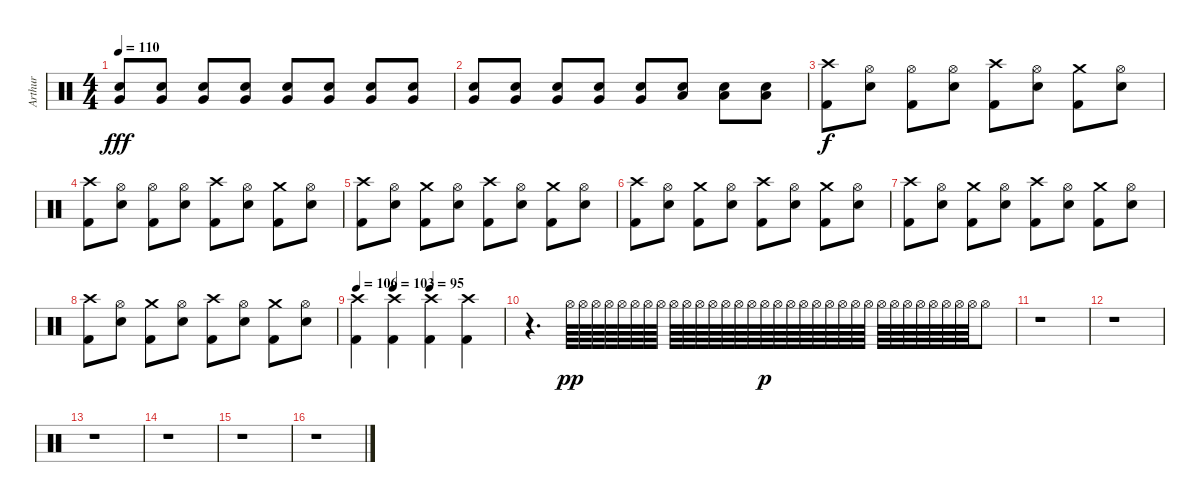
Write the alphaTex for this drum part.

\track ("Arthur" "Arthur") {instrument percussion}
\staff {score}
\articulation defaults
\ts (4 4)
\tempo 110
\clef neutral
\ks c
("Electric Snare (hit)" "Very Low Tom (hit)").8{dy fff} ("Electric Snare (hit)" "Very Low Tom (hit)").8 ("Electric Snare (hit)" "Very Low Tom (hit)").8 ("Electric Snare (hit)" "Very Low Tom (hit)").8 ("Electric Snare (hit)" "Very Low Tom (hit)").8 ("Electric Snare (hit)" "Very Low Tom (hit)").8 ("Electric Snare (hit)" "Very Low Tom (hit)").8 ("Electric Snare (hit)" "Very Low Tom (hit)").8 |
("Electric Snare (hit)" "Very Low Tom (hit)").8 ("Electric Snare (hit)" "Very Low Tom (hit)").8 ("Electric Snare (hit)" "Very Low Tom (hit)").8 ("Electric Snare (hit)" "Very Low Tom (hit)").8 ("Electric Snare (hit)" "Very Low Tom (hit)").8 ("Electric Snare (hit)" "Low Tom (hit)").8 ("Electric Snare (hit)" "Low Tom (hit)").8 ("Electric Snare (hit)" "Low Tom (hit)").8 |
("Crash high (hit)" "Kick (hit) 2").8{dy f} ("Hi-Hat (open)" "Electric Snare (hit)").8 ("Hi-Hat (open)" "Kick (hit) 2").8 ("Hi-Hat (open)" "Electric Snare (hit)").8 ("Crash high (hit)" "Kick (hit) 2").8 ("Hi-Hat (open)" "Electric Snare (hit)").8 ("Crash medium (hit)" "Kick (hit) 2").8 ("Hi-Hat (open)" "Electric Snare (hit)").8 |
("Crash high (hit)" "Kick (hit) 2").8 ("Hi-Hat (open)" "Electric Snare (hit)").8 ("Hi-Hat (open)" "Kick (hit) 2").8 ("Hi-Hat (open)" "Electric Snare (hit)").8 ("Crash high (hit)" "Kick (hit) 2").8 ("Hi-Hat (open)" "Electric Snare (hit)").8 ("Crash medium (hit)" "Kick (hit) 2").8 ("Hi-Hat (open)" "Electric Snare (hit)").8 |
("Crash high (hit)" "Kick (hit) 2").8 ("Hi-Hat (open)" "Electric Snare (hit)").8 ("Crash medium (hit)" "Kick (hit) 2").8 ("Hi-Hat (open)" "Electric Snare (hit)").8 ("Crash high (hit)" "Kick (hit) 2").8 ("Hi-Hat (open)" "Electric Snare (hit)").8 ("Crash medium (hit)" "Kick (hit) 2").8 ("Hi-Hat (open)" "Electric Snare (hit)").8 |
("Crash high (hit)" "Kick (hit) 2").8 ("Hi-Hat (open)" "Electric Snare (hit)").8 ("Crash medium (hit)" "Kick (hit) 2").8 ("Hi-Hat (open)" "Electric Snare (hit)").8 ("Crash high (hit)" "Kick (hit) 2").8 ("Hi-Hat (open)" "Electric Snare (hit)").8 ("Crash medium (hit)" "Kick (hit) 2").8 ("Hi-Hat (open)" "Electric Snare (hit)").8 |
("Crash high (hit)" "Kick (hit) 2").8 ("Hi-Hat (open)" "Electric Snare (hit)").8 ("Crash medium (hit)" "Kick (hit) 2").8 ("Hi-Hat (open)" "Electric Snare (hit)").8 ("Crash high (hit)" "Kick (hit) 2").8 ("Hi-Hat (open)" "Electric Snare (hit)").8 ("Crash medium (hit)" "Kick (hit) 2").8 ("Hi-Hat (open)" "Electric Snare (hit)").8 |
("Crash high (hit)" "Kick (hit) 2").8 ("Hi-Hat (open)" "Electric Snare (hit)").8 ("Crash medium (hit)" "Kick (hit) 2").8 ("Hi-Hat (open)" "Electric Snare (hit)").8 ("Crash high (hit)" "Kick (hit) 2").8 ("Hi-Hat (open)" "Electric Snare (hit)").8 ("Crash medium (hit)" "Kick (hit) 2").8 ("Hi-Hat (open)" "Electric Snare (hit)").8 |
\tempo 106
\tempo (103 0.25)
\tempo (98 0.5)
\tempo (95 0.5)
("Crash high (hit)" "Kick (hit) 2").4 ("Crash high (hit)" "Kick (hit) 2").4 ("Crash high (hit)" "Kick (hit) 2").4 ("Crash high (hit)" "Kick (hit) 2").4 |
r.4{d} "Hi-Hat (open)".64{dy pp} "Hi-Hat (open)".64 "Hi-Hat (open)".64 "Hi-Hat (open)".64 "Hi-Hat (open)".64 "Hi-Hat (open)".64 "Hi-Hat (open)".64 "Hi-Hat (open)".64 "Hi-Hat (open)".64 "Hi-Hat (open)".64 "Hi-Hat (open)".64 "Hi-Hat (open)".64 "Hi-Hat (open)".64 "Hi-Hat (open)".64 "Hi-Hat (open)".64 "Hi-Hat (open)".64{dy p} "Hi-Hat (open)".64 "Hi-Hat (open)".64 "Hi-Hat (open)".64 "Hi-Hat (open)".64 "Hi-Hat (open)".64 "Hi-Hat (open)".64 "Hi-Hat (open)".64 "Hi-Hat (open)".64 "Hi-Hat (open)".64 "Hi-Hat (open)".64 "Hi-Hat (open)".64 "Hi-Hat (open)".64 "Hi-Hat (open)".64 "Hi-Hat (open)".64 "Hi-Hat (open)".64 "Hi-Hat (open)".64 "Hi-Hat (open)".8 |
r.1 |
r.1 |
r.1 |
r.1 |
r.1 |
r.1
